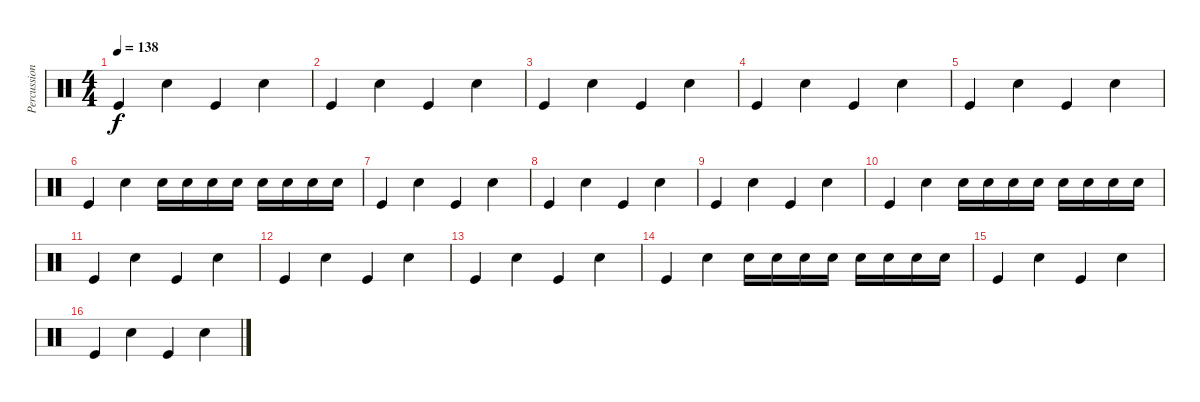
\track ("Percussion" "Percussion") {instrument percussion}
\staff {score}
\articulation defaults
\ts (4 4)
\tempo 138
\clef neutral
\ks c "Kick (hit)".4{dy f} "Snare (hit) 2".4 "Kick (hit)".4 "Snare (hit) 2".4
|
"Kick (hit)".4 "Snare (hit) 2".4 "Kick (hit)".4 "Snare (hit) 2".4 |
"Kick (hit)".4 "Snare (hit) 2".4 "Kick (hit)".4 "Snare (hit) 2".4 |
"Kick (hit)".4 "Snare (hit) 2".4 "Kick (hit)".4 "Snare (hit) 2".4 |
"Kick (hit)".4 "Snare (hit) 2".4 "Kick (hit)".4 "Snare (hit) 2".4 |
"Kick (hit)".4 "Snare (hit) 2".4 "Snare (hit) 2".16 "Snare (hit) 2".16 "Snare (hit) 2".16 "Snare (hit) 2".16 "Snare (hit) 2".16 "Snare (hit) 2".16 "Snare (hit) 2".16 "Snare (hit) 2".16 |
"Kick (hit)".4 "Snare (hit) 2".4 "Kick (hit)".4 "Snare (hit) 2".4 |
"Kick (hit)".4 "Snare (hit) 2".4 "Kick (hit)".4 "Snare (hit) 2".4 |
"Kick (hit)".4 "Snare (hit) 2".4 "Kick (hit)".4 "Snare (hit) 2".4 |
"Kick (hit)".4 "Snare (hit) 2".4 "Snare (hit) 2".16 "Snare (hit) 2".16 "Snare (hit) 2".16 "Snare (hit) 2".16 "Snare (hit) 2".16 "Snare (hit) 2".16 "Snare (hit) 2".16 "Snare (hit) 2".16 |
"Kick (hit)".4 "Snare (hit) 2".4 "Kick (hit)".4 "Snare (hit) 2".4 |
"Kick (hit)".4 "Snare (hit) 2".4 "Kick (hit)".4 "Snare (hit) 2".4 |
"Kick (hit)".4 "Snare (hit) 2".4 "Kick (hit)".4 "Snare (hit) 2".4 |
"Kick (hit)".4 "Snare (hit) 2".4 "Snare (hit) 2".16 "Snare (hit) 2".16 "Snare (hit) 2".16 "Snare (hit) 2".16 "Snare (hit) 2".16 "Snare (hit) 2".16 "Snare (hit) 2".16 "Snare (hit) 2".16 |
"Kick (hit)".4 "Snare (hit) 2".4 "Kick (hit)".4 "Snare (hit) 2".4 |
"Kick (hit)".4 "Snare (hit) 2".4 "Kick (hit)".4 "Snare (hit) 2".4
